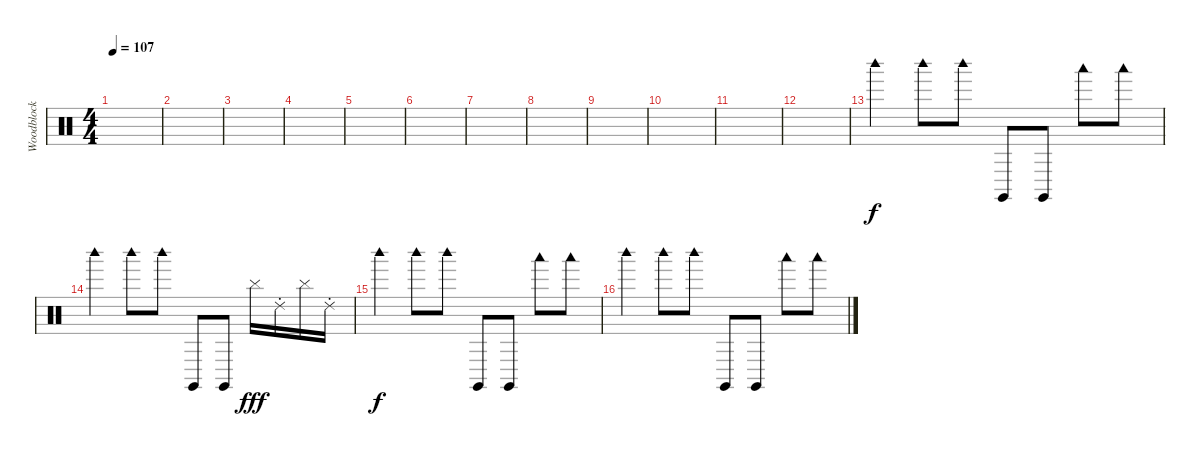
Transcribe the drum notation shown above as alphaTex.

\track ("Woodblock" "Woodblock") {instrument percussion}
\staff {score}
\articulation defaults
\ts (4 4)
\tempo 107
\clef neutral
\ks c
|
|
|
|
|
|
|
|
|
|
|
|
"Woodblock high (hit)".4 "Woodblock high (hit)".8 "Woodblock high (hit)".8 "Claves (hit)".8 "Claves (hit)".8 "Woodblock low (hit)".8 "Woodblock low (hit)".8 |
"Woodblock high (hit)".4 "Woodblock high (hit)".8 "Woodblock high (hit)".8 "Claves (hit)".8 "Claves (hit)".8 "Cymbal (hit)".16{dy fff} "Ride (choke) 2".16 "Cymbal (hit)".16 "Ride (choke) 2".16 |
"Woodblock high (hit)".4{dy f volume 13} "Woodblock high (hit)".8 "Woodblock high (hit)".8 "Claves (hit)".8 "Claves (hit)".8 "Woodblock low (hit)".8 "Woodblock low (hit)".8 |
"Woodblock high (hit)".4 "Woodblock high (hit)".8 "Woodblock high (hit)".8 "Claves (hit)".8 "Claves (hit)".8 "Woodblock low (hit)".8 "Woodblock low (hit)".8
